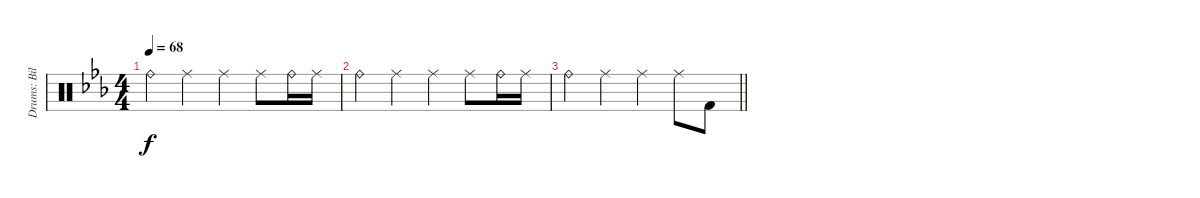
\track ("Drums: Bill" "Drums: Bil") {instrument percussion}
\staff {score}
\articulation defaults
\ts (4 4)
\tempo 68
\clef neutral
\ks eb "Ride (bell)".4{dy f} "Ride (middle)".4 "Ride (middle)".4 "Ride (middle)".8 "Ride (bell)".16 "Ride (middle)".16
|
"Ride (bell)".4 "Ride (middle)".4 "Ride (middle)".4 "Ride (middle)".8 "Ride (bell)".16 "Ride (middle)".16 |
\barLineRight lightlight "Ride (bell)".4 "Ride (middle)".4 "Ride (middle)".4 "Ride (middle)".8 "Kick (hit) 2".8
